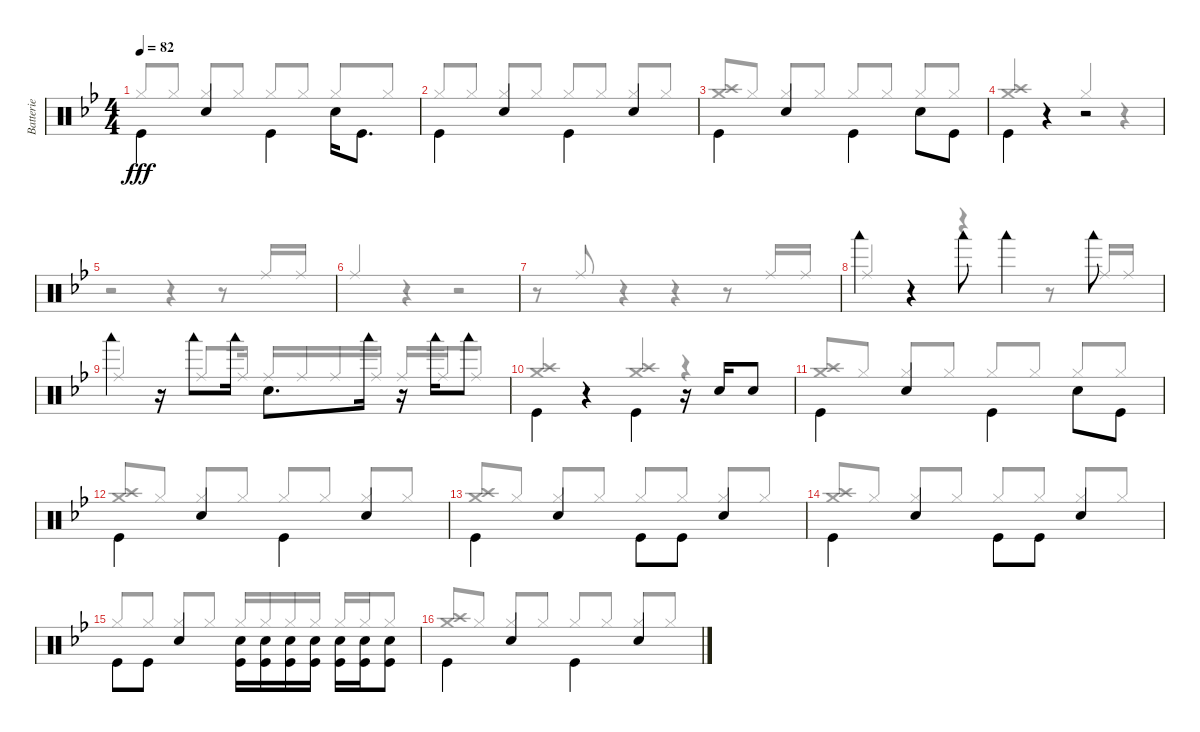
\track ("Batterie" "Batterie") {instrument percussion}
\staff {score}
\articulation defaults
\voice
\ts (4 4)
\tempo 82
\clef neutral
\ks bb "Kick (hit)".4{dy fff beam Down} "Snare (hit) 2".4 "Kick (hit)".4{beam Down} "Snare (hit) 2".16{beam Down} "Kick (hit)".8{d beam Down}
|
"Kick (hit)".4{beam Down} "Snare (hit) 2".4 "Kick (hit)".4{beam Down} "Snare (hit) 2".4 |
"Kick (hit)".4{beam Down} "Snare (hit) 2".4 "Kick (hit)".4{beam Down} "Snare (hit) 2".8{beam Down} "Kick (hit)".8{beam Down} |
"Kick (hit)".4{beam Down} r.4 r.2 |
|
|
|
"Woodblock low (hit)".4{beam Down} r.4 "Woodblock low (hit)".8{beam Down} "Woodblock low (hit)".4{beam Down} "Woodblock low (hit)".8{beam Down} |
"Woodblock low (hit)".4{beam Down} r.16 "Woodblock low (hit)".8{beam Down} "Woodblock low (hit)".16{beam Down} "Snare (hit)".8{d beam Down} "Woodblock low (hit)".16{beam Down} r.16 "Woodblock low (hit)".16{beam Down} "Woodblock low (hit)".8{beam Down} |
"Kick (hit)".4{beam Down} r.4 "Kick (hit)".4{beam Down} r.16 "Snare (hit) 2".16 "Snare (hit) 2".8 |
"Kick (hit)".4{beam Down} "Snare (hit) 2".4 "Kick (hit)".4{beam Down} "Snare (hit) 2".8{beam Down} "Kick (hit)".8{beam Down} |
"Kick (hit)".4{beam Down} "Snare (hit) 2".4 "Kick (hit)".4{beam Down} "Snare (hit) 2".4 |
"Kick (hit)".4{beam Down} "Snare (hit) 2".4 "Kick (hit)".8{beam Down} "Kick (hit)".8{beam Down} "Snare (hit) 2".4 |
"Kick (hit)".4{beam Down} "Snare (hit) 2".4 "Kick (hit)".8{beam Down} "Kick (hit)".8{beam Down} "Snare (hit) 2".4 |
"Kick (hit)".8{beam Down} "Kick (hit)".8{beam Down} "Snare (hit) 2".4 ("Snare (hit) 2" "Kick (hit)").16{beam Down} ("Snare (hit) 2" "Kick (hit)").16{beam Down} ("Snare (hit) 2" "Kick (hit)").16{beam Down} ("Snare (hit) 2" "Kick (hit)").16{beam Down} ("Snare (hit) 2" "Kick (hit)").16{beam Down} ("Snare (hit) 2" "Kick (hit)").16{beam Down} ("Snare (hit) 2" "Kick (hit)").8{beam Down} |
"Kick (hit)".4{beam Down} "Snare (hit) 2".4 "Kick (hit)".4{beam Down} "Snare (hit) 2".4
\voice
\clef neutral
\ottava regular
\simile none
\ks bb "Hi-Hat (closed)".8{dy fff beam Up} "Hi-Hat (closed)".8{beam Up} "Hi-Hat (closed)".8{beam Up} "Hi-Hat (closed)".8{beam Up} "Hi-Hat (closed)".8{beam Up} "Hi-Hat (closed)".8{beam Up} "Hi-Hat (closed)".8{beam Up} "Hi-Hat (closed)".8{beam Up}
|
"Hi-Hat (closed)".8{beam Up} "Hi-Hat (closed)".8{beam Up} "Hi-Hat (closed)".8{beam Up} "Hi-Hat (closed)".8{beam Up} "Hi-Hat (closed)".8{beam Up} "Hi-Hat (closed)".8{beam Up} "Hi-Hat (closed)".8{beam Up} "Hi-Hat (closed)".8{beam Up} |
("Crash medium (hit)" "Crash high (hit)").8{beam Up} "Hi-Hat (closed)".8{beam Up} "Hi-Hat (closed)".8{beam Up} "Hi-Hat (closed)".8{beam Up} "Hi-Hat (closed)".8{beam Up} "Hi-Hat (closed)".8{beam Up} "Hi-Hat (closed)".8{beam Up} "Hi-Hat (closed)".8{beam Up} |
("Crash medium (hit)" "Crash high (hit)").4{beam Up} r.4 "Hi-Hat (closed)".4{beam Up} r.4 |
r.2 r.4 r.8 "Ride (middle)".16{beam Up} "Ride (middle)".16{beam Up} |
"Ride (middle)".4{beam Up} r.4 r.2 |
r.8 "Ride (middle)".8{beam Up} r.4 r.4 r.8 "Ride (middle)".16{beam Up} "Ride (middle)".16{beam Up} |
"Ride (middle)".4{beam Up} r.4 r.4 r.8 "Ride (middle)".16{beam Up} "Ride (middle)".16{beam Up} |
"Ride (middle)".4{beam Up} r.16 "Ride (middle)".8{beam Up} "Ride (middle)".16{beam Up} "Ride (middle)".16{beam Up} "Ride (middle)".16{beam Up} "Ride (middle)".16{beam Up} "Ride (middle)".16{beam Up} "Ride (middle)".16{beam Up} "Ride (middle)".16{beam Up} "Ride (middle)".8{beam Up} |
("Crash medium (hit)" "Crash high (hit)").4{beam Up} r.4 ("Crash medium (hit)" "Crash high (hit)").4{beam Up} r.4 |
("Crash medium (hit)" "Crash high (hit)").8{beam Up} "Hi-Hat (closed)".8{beam Up} "Hi-Hat (closed)".8{beam Up} "Hi-Hat (closed)".8{beam Up} "Hi-Hat (closed)".8{beam Up} "Hi-Hat (closed)".8{beam Up} "Hi-Hat (closed)".8{beam Up} "Hi-Hat (closed)".8{beam Up} |
("Crash medium (hit)" "Crash high (hit)").8{beam Up} "Hi-Hat (closed)".8{beam Up} "Hi-Hat (closed)".8{beam Up} "Hi-Hat (closed)".8{beam Up} "Hi-Hat (closed)".8{beam Up} "Hi-Hat (closed)".8{beam Up} "Hi-Hat (closed)".8{beam Up} "Hi-Hat (closed)".8{beam Up} |
("Crash medium (hit)" "Crash high (hit)").8{beam Up} "Hi-Hat (closed)".8{beam Up} "Hi-Hat (closed)".8{beam Up} "Hi-Hat (closed)".8{beam Up} "Hi-Hat (closed)".8{beam Up} "Hi-Hat (closed)".8{beam Up} "Hi-Hat (closed)".8{beam Up} "Hi-Hat (closed)".8{beam Up} |
("Crash medium (hit)" "Crash high (hit)").8{beam Up} "Hi-Hat (closed)".8{beam Up} "Hi-Hat (closed)".8{beam Up} "Hi-Hat (closed)".8{beam Up} "Hi-Hat (closed)".8{beam Up} "Hi-Hat (closed)".8{beam Up} "Hi-Hat (closed)".8{beam Up} "Hi-Hat (closed)".8{beam Up} |
"Hi-Hat (closed)".8{beam Up} "Hi-Hat (closed)".8{beam Up} "Hi-Hat (closed)".8{beam Up} "Hi-Hat (closed)".8{beam Up} "Hi-Hat (closed)".16{beam Up} "Hi-Hat (closed)".16{beam Up} "Hi-Hat (closed)".16{beam Up} "Hi-Hat (closed)".16{beam Up} "Hi-Hat (closed)".16{beam Up} "Hi-Hat (closed)".16{beam Up} "Hi-Hat (closed)".8{beam Up} |
("Crash medium (hit)" "Crash high (hit)").8{beam Up} "Hi-Hat (closed)".8{beam Up} "Hi-Hat (closed)".8{beam Up} "Hi-Hat (closed)".8{beam Up} "Hi-Hat (closed)".8{beam Up} "Hi-Hat (closed)".8{beam Up} "Hi-Hat (closed)".8{beam Up} "Hi-Hat (closed)".8{beam Up}
